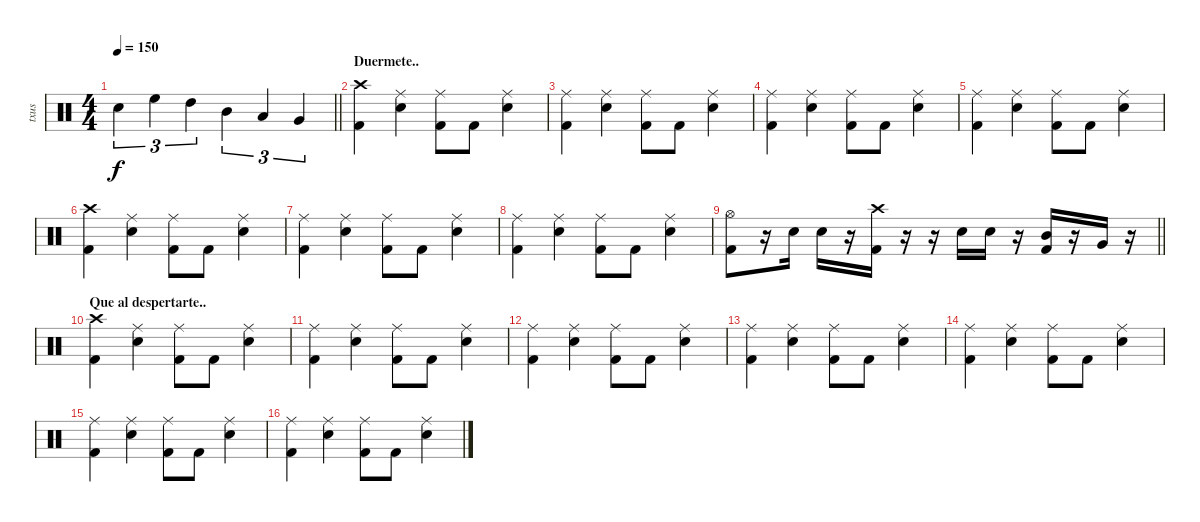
\track ("txus" "txus") {instrument percussion}
\staff {score}
\articulation defaults
\ts (4 4)
\tempo 150
\clef neutral
\barLineRight lightlight
\ks c "Electric Snare (hit)".4{tu (3 2) dy f} "High Floor Tom (hit)".4{tu (3 2)} "High Tom (hit)".4{tu (3 2)} "Mid Tom (hit)".4{tu (3 2)} "Low Tom (hit)".4{tu (3 2)} "Very Low Tom (hit)".4{tu (3 2)}
|
\section ("" "Duermete..")
("Kick (hit) 2" "Crash high (hit)").4 ("Ride (middle)" "Electric Snare (hit)").4 ("Kick (hit) 2" "Ride (middle)").8 "Kick (hit) 2".8 ("Ride (middle)" "Electric Snare (hit)").4 |
("Kick (hit) 2" "Ride (middle)").4 ("Ride (middle)" "Electric Snare (hit)").4 ("Kick (hit) 2" "Ride (middle)").8 "Kick (hit) 2".8 ("Ride (middle)" "Electric Snare (hit)").4 |
("Kick (hit) 2" "Ride (middle)").4 ("Ride (middle)" "Electric Snare (hit)").4 ("Kick (hit) 2" "Ride (middle)").8 "Kick (hit) 2".8 ("Ride (middle)" "Electric Snare (hit)").4 |
("Kick (hit) 2" "Ride (middle)").4 ("Ride (middle)" "Electric Snare (hit)").4 ("Kick (hit) 2" "Ride (middle)").8 "Kick (hit) 2".8 ("Ride (middle)" "Electric Snare (hit)").4 |
("Kick (hit) 2" "Crash high (hit)").4 ("Ride (middle)" "Electric Snare (hit)").4 ("Kick (hit) 2" "Ride (middle)").8 "Kick (hit) 2".8 ("Ride (middle)" "Electric Snare (hit)").4 |
("Kick (hit) 2" "Ride (middle)").4 ("Ride (middle)" "Electric Snare (hit)").4 ("Kick (hit) 2" "Ride (middle)").8 "Kick (hit) 2".8 ("Ride (middle)" "Electric Snare (hit)").4 |
("Kick (hit) 2" "Ride (middle)").4 ("Ride (middle)" "Electric Snare (hit)").4 ("Kick (hit) 2" "Ride (middle)").8 "Kick (hit) 2".8 ("Ride (middle)" "Electric Snare (hit)").4 |
\barLineRight lightlight
("Kick (hit) 2" "Hi-Hat (open)").8 r.16 "Electric Snare (hit)".16 "Electric Snare (hit)".16 r.16 ("Kick (hit) 2" "Crash high (hit)").16 r.16 r.16 "Electric Snare (hit)".16 "Electric Snare (hit)".16 r.16 ("Kick (hit) 2" "Mid Tom (hit)").16 r.16 "Very Low Tom (hit)".16 r.16 |
\section ("" "Que al despertarte..")
("Kick (hit) 2" "Crash high (hit)").4 ("Ride (middle)" "Electric Snare (hit)").4 ("Kick (hit) 2" "Ride (middle)").8 "Kick (hit) 2".8 ("Ride (middle)" "Electric Snare (hit)").4 |
("Kick (hit) 2" "Ride (middle)").4 ("Ride (middle)" "Electric Snare (hit)").4 ("Kick (hit) 2" "Ride (middle)").8 "Kick (hit) 2".8 ("Ride (middle)" "Electric Snare (hit)").4 |
("Kick (hit) 2" "Ride (middle)").4 ("Ride (middle)" "Electric Snare (hit)").4 ("Kick (hit) 2" "Ride (middle)").8 "Kick (hit) 2".8 ("Ride (middle)" "Electric Snare (hit)").4 |
("Kick (hit) 2" "Ride (middle)").4 ("Ride (middle)" "Electric Snare (hit)").4 ("Kick (hit) 2" "Ride (middle)").8 "Kick (hit) 2".8 ("Ride (middle)" "Electric Snare (hit)").4 |
("Kick (hit) 2" "Ride (middle)").4 ("Ride (middle)" "Electric Snare (hit)").4 ("Kick (hit) 2" "Ride (middle)").8 "Kick (hit) 2".8 ("Ride (middle)" "Electric Snare (hit)").4 |
("Kick (hit) 2" "Ride (middle)").4 ("Ride (middle)" "Electric Snare (hit)").4 ("Kick (hit) 2" "Ride (middle)").8 "Kick (hit) 2".8 ("Ride (middle)" "Electric Snare (hit)").4 |
("Kick (hit) 2" "Ride (middle)").4 ("Ride (middle)" "Electric Snare (hit)").4 ("Kick (hit) 2" "Ride (middle)").8 "Kick (hit) 2".8 ("Ride (middle)" "Electric Snare (hit)").4
